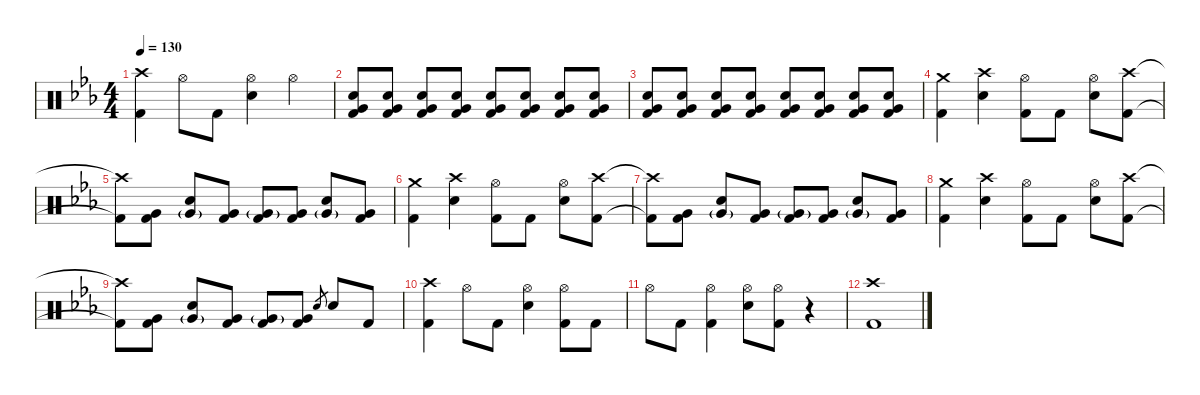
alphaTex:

\defaultSystemsLayout 4
\hideDynamics
\bracketExtendMode nobrackets
\singleTrackTrackNamePolicy hidden
\multiTrackTrackNamePolicy hidden
\firstSystemTrackNameMode fullname
\firstSystemTrackNameOrientation horizontal
\otherSystemsTrackNameOrientation horizontal
\track ("Drums" "drm.") {instrument percussion}
\staff {score}
\articulation defaults
\ts (4 4)
\tempo 130
\clef neutral
\ks cminor
("Crash high (hit)"{acc forcenatural} "Kick (hit) 2"{acc forcenatural}).4{dy mp} "Hi-Hat (open)"{acc forcenatural}.8 "Kick (hit) 2"{acc forcenatural}.8{dy f} ("Hi-Hat (open)"{acc forcenatural} "Snare (hit) 2"{acc forcenatural}).4{dy mp} "Hi-Hat (open)"{acc forcenatural}.4 |
("Snare (hit) 2"{acc forcenatural} "Very Low Tom (hit)"{acc forcenatural} "Kick (hit) 2"{acc forcenatural}).8{dy ppp} ("Snare (hit) 2"{acc forcenatural} "Very Low Tom (hit)"{acc forcenatural} "Kick (hit) 2"{acc forcenatural}).8 ("Snare (hit) 2"{acc forcenatural} "Very Low Tom (hit)"{acc forcenatural} "Kick (hit) 2"{acc forcenatural}).8{dy pp} ("Snare (hit) 2"{acc forcenatural} "Very Low Tom (hit)"{acc forcenatural} "Kick (hit) 2"{acc forcenatural}).8 ("Snare (hit) 2"{acc forcenatural} "Very Low Tom (hit)"{acc forcenatural} "Kick (hit) 2"{acc forcenatural}).8{dy p} ("Snare (hit) 2"{acc forcenatural} "Very Low Tom (hit)"{acc forcenatural} "Kick (hit) 2"{acc forcenatural}).8 ("Snare (hit) 2"{acc forcenatural} "Very Low Tom (hit)"{acc forcenatural} "Kick (hit) 2"{acc forcenatural}).8{dy mp} ("Snare (hit) 2"{acc forcenatural} "Very Low Tom (hit)"{acc forcenatural} "Kick (hit) 2"{acc forcenatural}).8 |
("Snare (hit) 2"{acc forcenatural} "Very Low Tom (hit)"{acc forcenatural} "Kick (hit) 2"{acc forcenatural}).8{dy mf} ("Snare (hit) 2"{acc forcenatural} "Very Low Tom (hit)"{acc forcenatural} "Kick (hit) 2"{acc forcenatural}).8 ("Snare (hit) 2"{acc forcenatural} "Very Low Tom (hit)"{acc forcenatural} "Kick (hit) 2"{acc forcenatural}).8{dy f} ("Snare (hit) 2"{acc forcenatural} "Very Low Tom (hit)"{acc forcenatural} "Kick (hit) 2"{acc forcenatural}).8 ("Snare (hit) 2"{acc forcenatural} "Very Low Tom (hit)"{acc forcenatural} "Kick (hit) 2"{acc forcenatural}).8{dy ff} ("Snare (hit) 2"{acc forcenatural} "Very Low Tom (hit)"{acc forcenatural} "Kick (hit) 2"{acc forcenatural}).8 ("Snare (hit) 2"{acc forcenatural} "Very Low Tom (hit)"{acc forcenatural} "Kick (hit) 2"{acc forcenatural}).8{dy fff} ("Snare (hit) 2"{acc forcenatural} "Very Low Tom (hit)"{acc forcenatural} "Kick (hit) 2"{acc forcenatural}).8 |
("Crash medium (hit)"{acc forcenatural} "Kick (hit) 2"{acc forcenatural}).4{dy f} ("Crash high (hit)"{acc forcenatural} "Snare (hit) 2"{acc forcenatural}).4 ("Hi-Hat (open)"{acc forcenatural} "Kick (hit) 2"{acc forcenatural}).8{dy mp} "Kick (hit) 2"{acc forcenatural}.8{dy f} ("Hi-Hat (open)"{acc forcenatural} "Snare (hit) 2"{acc forcenatural}).8{dy mp} ("Crash high (hit)"{acc forcenatural} "Kick (hit) 2"{acc forcenatural}).8{dy f} |
("Crash high (hit)"{t acc forcenatural} "Kick (hit) 2"{t acc forcenatural}).8 ("Very Low Tom (hit)"{acc forcenatural} "Kick (hit) 2"{acc forcenatural}).8 ("Snare (hit) 2"{acc forcenatural} "Very Low Tom (hit)"{g acc forcenatural}).8 ("Very Low Tom (hit)"{acc forcenatural} "Kick (hit) 2"{acc forcenatural}).8 ("Very Low Tom (hit)"{g acc forcenatural} "Kick (hit) 2"{acc forcenatural}).8 ("Very Low Tom (hit)"{acc forcenatural} "Kick (hit) 2"{acc forcenatural}).8 ("Snare (hit) 2"{acc forcenatural} "Very Low Tom (hit)"{g acc forcenatural}).8 ("Very Low Tom (hit)"{acc forcenatural} "Kick (hit) 2"{acc forcenatural}).8 |
("Crash medium (hit)"{acc forcenatural} "Kick (hit) 2"{acc forcenatural}).4 ("Crash high (hit)"{acc forcenatural} "Snare (hit) 2"{acc forcenatural}).4 ("Hi-Hat (open)"{acc forcenatural} "Kick (hit) 2"{acc forcenatural}).8{dy mp} "Kick (hit) 2"{acc forcenatural}.8{dy f} ("Hi-Hat (open)"{acc forcenatural} "Snare (hit) 2"{acc forcenatural}).8{dy mp} ("Crash high (hit)"{acc forcenatural} "Kick (hit) 2"{acc forcenatural}).8{dy f} |
("Crash high (hit)"{t acc forcenatural} "Kick (hit) 2"{t acc forcenatural}).8 ("Very Low Tom (hit)"{acc forcenatural} "Kick (hit) 2"{acc forcenatural}).8 ("Snare (hit) 2"{acc forcenatural} "Very Low Tom (hit)"{g acc forcenatural}).8 ("Very Low Tom (hit)"{acc forcenatural} "Kick (hit) 2"{acc forcenatural}).8 ("Very Low Tom (hit)"{g acc forcenatural} "Kick (hit) 2"{acc forcenatural}).8 ("Very Low Tom (hit)"{acc forcenatural} "Kick (hit) 2"{acc forcenatural}).8 ("Snare (hit) 2"{acc forcenatural} "Very Low Tom (hit)"{g acc forcenatural}).8 ("Very Low Tom (hit)"{acc forcenatural} "Kick (hit) 2"{acc forcenatural}).8 |
("Crash medium (hit)"{acc forcenatural} "Kick (hit) 2"{acc forcenatural}).4 ("Crash high (hit)"{acc forcenatural} "Snare (hit) 2"{acc forcenatural}).4 ("Hi-Hat (open)"{acc forcenatural} "Kick (hit) 2"{acc forcenatural}).8{dy mp} "Kick (hit) 2"{acc forcenatural}.8{dy f} ("Hi-Hat (open)"{acc forcenatural} "Snare (hit) 2"{acc forcenatural}).8{dy mp} ("Crash high (hit)"{acc forcenatural} "Kick (hit) 2"{acc forcenatural}).8{dy f} |
("Crash high (hit)"{t acc forcenatural} "Kick (hit) 2"{t acc forcenatural}).8 ("Very Low Tom (hit)"{acc forcenatural} "Kick (hit) 2"{acc forcenatural}).8 ("Snare (hit) 2"{acc forcenatural} "Very Low Tom (hit)"{g acc forcenatural}).8 ("Very Low Tom (hit)"{acc forcenatural} "Kick (hit) 2"{acc forcenatural}).8 ("Very Low Tom (hit)"{g acc forcenatural} "Kick (hit) 2"{acc forcenatural}).8 ("Very Low Tom (hit)"{acc forcenatural} "Kick (hit) 2"{acc forcenatural}).8 "Electric Snare (hit)"{acc forcenatural}.8{gr dy mf} "Snare (hit) 2"{acc forcenatural}.8{dy f} "Kick (hit) 2"{acc forcenatural}.8 |
("Crash high (hit)"{acc forcenatural} "Kick (hit) 2"{acc forcenatural}).4 "Hi-Hat (open)"{acc forcenatural}.8{dy mp} "Kick (hit) 2"{acc forcenatural}.8{dy f} ("Hi-Hat (open)"{acc forcenatural} "Snare (hit) 2"{acc forcenatural}).4{dy mp} ("Hi-Hat (open)"{acc forcenatural} "Kick (hit) 2"{acc forcenatural}).8 "Kick (hit) 2"{acc forcenatural}.8{dy f} |
"Hi-Hat (open)"{acc forcenatural}.8{dy mp} "Kick (hit) 2"{acc forcenatural}.8{dy f} ("Hi-Hat (open)"{acc forcenatural} "Kick (hit) 2"{acc forcenatural}).4{dy mp} ("Hi-Hat (open)"{acc forcenatural} "Snare (hit) 2"{acc forcenatural}).8 ("Hi-Hat (open)"{acc forcenatural} "Kick (hit) 2"{acc forcenatural}).8 r.4 |
("Crash high (hit)"{acc forcenatural} "Kick (hit) 2"{acc forcenatural}).1{dy f}
